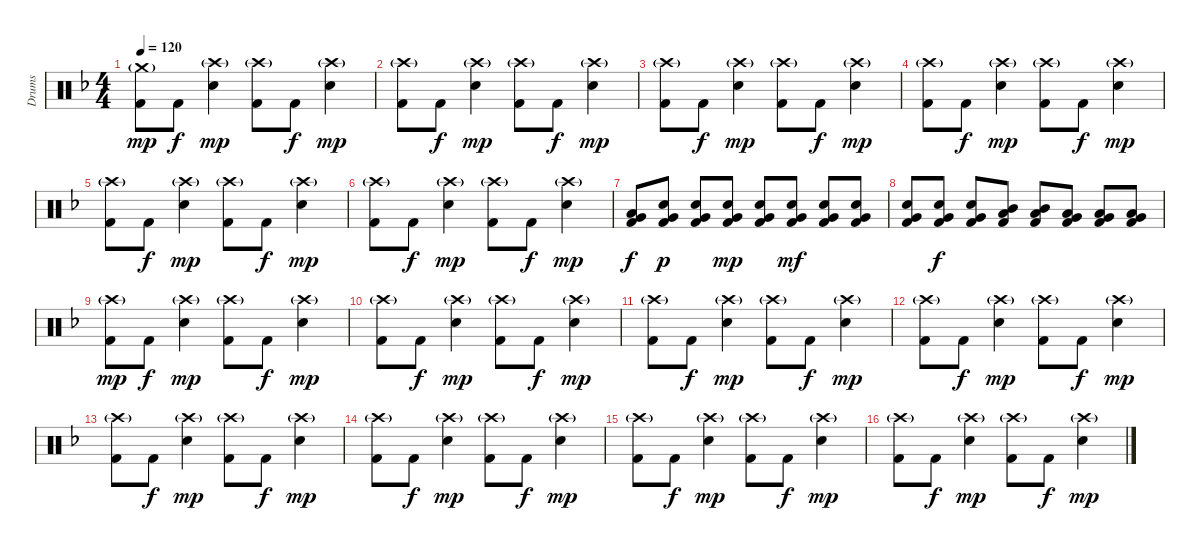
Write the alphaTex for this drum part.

\track ("Drums" "Drums") {instrument percussion}
\staff {score}
\articulation defaults
\ts (4 4)
\tempo 120
\clef neutral
\ks dminor
("Crash medium (hit)"{g} "Kick (hit) 2").8{dy mp} "Kick (hit) 2".8{dy f} ("Crash high (hit)"{g} "Snare (hit) 2").4{dy mp} ("Crash high (hit)"{g} "Kick (hit) 2").8 "Kick (hit) 2".8{dy f} ("Crash high (hit)"{g} "Snare (hit) 2").4{dy mp} |
("Crash high (hit)"{g} "Kick (hit) 2").8 "Kick (hit) 2".8{dy f} ("Crash high (hit)"{g} "Snare (hit) 2").4{dy mp} ("Crash high (hit)"{g} "Kick (hit) 2").8 "Kick (hit) 2".8{dy f} ("Crash high (hit)"{g} "Snare (hit) 2").4{dy mp} |
("Crash high (hit)"{g} "Kick (hit) 2").8 "Kick (hit) 2".8{dy f} ("Crash high (hit)"{g} "Snare (hit) 2").4{dy mp} ("Crash high (hit)"{g} "Kick (hit) 2").8 "Kick (hit) 2".8{dy f} ("Crash high (hit)"{g} "Snare (hit) 2").4{dy mp} |
("Crash high (hit)"{g} "Kick (hit) 2").8 "Kick (hit) 2".8{dy f} ("Crash high (hit)"{g} "Snare (hit) 2").4{dy mp} ("Crash high (hit)"{g} "Kick (hit) 2").8 "Kick (hit) 2".8{dy f} ("Crash high (hit)"{g} "Snare (hit) 2").4{dy mp} |
("Crash high (hit)"{g} "Kick (hit) 2").8 "Kick (hit) 2".8{dy f} ("Crash high (hit)"{g} "Snare (hit) 2").4{dy mp} ("Crash high (hit)"{g} "Kick (hit) 2").8 "Kick (hit) 2".8{dy f} ("Crash high (hit)"{g} "Snare (hit) 2").4{dy mp} |
("Crash high (hit)"{g} "Kick (hit) 2").8 "Kick (hit) 2".8{dy f} ("Crash high (hit)"{g} "Snare (hit) 2").4{dy mp} ("Crash high (hit)"{g} "Kick (hit) 2").8 "Kick (hit) 2".8{dy f} ("Crash high (hit)"{g} "Snare (hit) 2").4{dy mp} |
("Very Low Tom (hit)" "Low Floor Tom (hit)" "Kick (hit) 2").8{dy f} ("Very Low Tom (hit)" "Snare (hit) 2" "Kick (hit) 2").8{dy p} ("Very Low Tom (hit)" "Snare (hit) 2" "Kick (hit) 2").8 ("Very Low Tom (hit)" "Snare (hit) 2" "Kick (hit) 2").8{dy mp} ("Very Low Tom (hit)" "Snare (hit) 2" "Kick (hit) 2").8 ("Very Low Tom (hit)" "Snare (hit) 2" "Kick (hit) 2").8{dy mf} ("Very Low Tom (hit)" "Snare (hit) 2" "Kick (hit) 2").8 ("Very Low Tom (hit)" "Snare (hit) 2" "Kick (hit) 2").8 |
("Very Low Tom (hit)" "Snare (hit) 2" "Kick (hit) 2").8 ("Very Low Tom (hit)" "Snare (hit) 2" "Kick (hit) 2").8{dy f} ("Very Low Tom (hit)" "Snare (hit) 2" "Kick (hit) 2").8 ("Mid Tom (hit)" "Low Tom (hit)" "Kick (hit) 2").8 ("Mid Tom (hit)" "Low Tom (hit)" "Kick (hit) 2").8 ("Very Low Tom (hit)" "Low Tom (hit)" "Kick (hit) 2").8 ("Very Low Tom (hit)" "Low Tom (hit)" "Kick (hit) 2").8 ("Very Low Tom (hit)" "Low Floor Tom (hit)" "Kick (hit) 2").8 |
("Crash high (hit)"{g} "Kick (hit) 2").8{dy mp} "Kick (hit) 2".8{dy f} ("Crash high (hit)"{g} "Snare (hit) 2").4{dy mp} ("Crash high (hit)"{g} "Kick (hit) 2").8 "Kick (hit) 2".8{dy f} ("Crash high (hit)"{g} "Snare (hit) 2").4{dy mp} |
("Crash high (hit)"{g} "Kick (hit) 2").8 "Kick (hit) 2".8{dy f} ("Crash high (hit)"{g} "Snare (hit) 2").4{dy mp} ("Crash high (hit)"{g} "Kick (hit) 2").8 "Kick (hit) 2".8{dy f} ("Crash high (hit)"{g} "Snare (hit) 2").4{dy mp} |
("Crash high (hit)"{g} "Kick (hit) 2").8 "Kick (hit) 2".8{dy f} ("Crash high (hit)"{g} "Snare (hit) 2").4{dy mp} ("Crash high (hit)"{g} "Kick (hit) 2").8 "Kick (hit) 2".8{dy f} ("Crash high (hit)"{g} "Snare (hit) 2").4{dy mp} |
("Crash high (hit)"{g} "Kick (hit) 2").8 "Kick (hit) 2".8{dy f} ("Crash high (hit)"{g} "Snare (hit) 2").4{dy mp} ("Crash high (hit)"{g} "Kick (hit) 2").8 "Kick (hit) 2".8{dy f} ("Crash high (hit)"{g} "Snare (hit) 2").4{dy mp} |
("Crash high (hit)"{g} "Kick (hit) 2").8 "Kick (hit) 2".8{dy f} ("Crash high (hit)"{g} "Snare (hit) 2").4{dy mp} ("Crash high (hit)"{g} "Kick (hit) 2").8 "Kick (hit) 2".8{dy f} ("Crash high (hit)"{g} "Snare (hit) 2").4{dy mp} |
("Crash high (hit)"{g} "Kick (hit) 2").8 "Kick (hit) 2".8{dy f} ("Crash high (hit)"{g} "Snare (hit) 2").4{dy mp} ("Crash high (hit)"{g} "Kick (hit) 2").8 "Kick (hit) 2".8{dy f} ("Crash high (hit)"{g} "Snare (hit) 2").4{dy mp} |
("Crash high (hit)"{g} "Kick (hit) 2").8 "Kick (hit) 2".8{dy f} ("Crash high (hit)"{g} "Snare (hit) 2").4{dy mp} ("Crash high (hit)"{g} "Kick (hit) 2").8 "Kick (hit) 2".8{dy f} ("Crash high (hit)"{g} "Snare (hit) 2").4{dy mp} |
("Crash high (hit)"{g} "Kick (hit) 2").8 "Kick (hit) 2".8{dy f} ("Crash high (hit)"{g} "Snare (hit) 2").4{dy mp} ("Crash high (hit)"{g} "Kick (hit) 2").8 "Kick (hit) 2".8{dy f} ("Crash high (hit)"{g} "Snare (hit) 2").4{dy mp}
